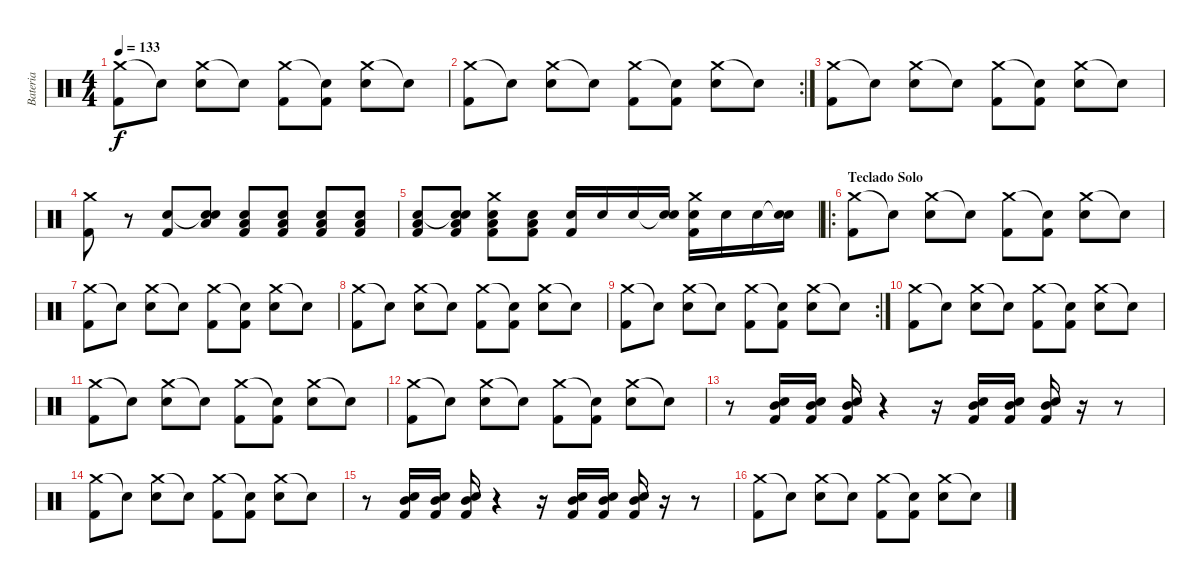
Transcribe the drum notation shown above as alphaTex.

\track ("Bateria" "Bateria") {instrument percussion}
\staff {score}
\articulation defaults
\ts (4 4)
\tempo 133
\clef neutral
\ks c
("Crash medium (hit)" "Kick (hit) 2").8{dy f} "Snare (hit)"{t}.8 ("Crash medium (hit)" "Electric Snare (hit)").8 "Snare (hit)"{t}.8 ("Crash medium (hit)" "Kick (hit) 2").8 ("Snare (hit)"{t} "Kick (hit) 2").8 ("Crash medium (hit)" "Electric Snare (hit)").8 "Snare (hit)"{t}.8 |
\rc 2
("Crash medium (hit)" "Kick (hit) 2").8 "Snare (hit)"{t}.8 ("Crash medium (hit)" "Electric Snare (hit)").8 "Snare (hit)"{t}.8 ("Crash medium (hit)" "Kick (hit) 2").8 ("Snare (hit)"{t} "Kick (hit) 2").8 ("Crash medium (hit)" "Electric Snare (hit)").8 "Snare (hit)"{t}.8 |
("Crash medium (hit)" "Kick (hit) 2").8 "Snare (hit)"{t}.8 ("Crash medium (hit)" "Electric Snare (hit)").8 "Snare (hit)"{t}.8 ("Crash medium (hit)" "Kick (hit) 2").8 ("Snare (hit)"{t} "Kick (hit) 2").8 ("Crash medium (hit)" "Electric Snare (hit)").8 "Snare (hit)"{t}.8 |
("Crash medium (hit)" "Kick (hit) 2").8 r.8 ("Electric Snare (hit)" "Kick (hit) 2").8 ("Snare (hit)"{t} "Electric Snare (hit)" "Low Floor Tom (hit)").8 ("Electric Snare (hit)" "Low Floor Tom (hit)" "Kick (hit) 2").8 ("Electric Snare (hit)" "Low Floor Tom (hit)" "Kick (hit) 2").8 ("Electric Snare (hit)" "Low Floor Tom (hit)" "Kick (hit) 2").8 ("Electric Snare (hit)" "Low Floor Tom (hit)" "Kick (hit) 2").8 |
("Electric Snare (hit)" "Low Floor Tom (hit)" "Kick (hit) 2").8 ("Snare (hit)"{t} "Electric Snare (hit)" "Low Floor Tom (hit)" "Kick (hit) 2").8 ("Crash medium (hit)" "Electric Snare (hit)" "Low Floor Tom (hit)" "Kick (hit) 2").8 ("Electric Snare (hit)" "Low Floor Tom (hit)" "Kick (hit) 2").8 ("Electric Snare (hit)" "Kick (hit) 2").16 "Electric Snare (hit)".16 "Electric Snare (hit)".16 ("Snare (hit)"{t} "Electric Snare (hit)").16 ("Crash medium (hit)" "Electric Snare (hit)" "Kick (hit) 2").16 "Electric Snare (hit)".16 "Electric Snare (hit)".16 ("Snare (hit)"{t} "Electric Snare (hit)").16 |
\ro
\section ("" "Teclado Solo")
("Crash medium (hit)" "Kick (hit) 2").8 "Snare (hit)"{t}.8 ("Crash medium (hit)" "Electric Snare (hit)").8 "Snare (hit)"{t}.8 ("Crash medium (hit)" "Kick (hit) 2").8 ("Snare (hit)"{t} "Kick (hit) 2").8 ("Crash medium (hit)" "Electric Snare (hit)").8 "Snare (hit)"{t}.8 |
("Crash medium (hit)" "Kick (hit) 2").8 "Snare (hit)"{t}.8 ("Crash medium (hit)" "Electric Snare (hit)").8 "Snare (hit)"{t}.8 ("Crash medium (hit)" "Kick (hit) 2").8 ("Snare (hit)"{t} "Kick (hit) 2").8 ("Crash medium (hit)" "Electric Snare (hit)").8 "Snare (hit)"{t}.8 |
("Crash medium (hit)" "Kick (hit) 2").8 "Snare (hit)"{t}.8 ("Crash medium (hit)" "Electric Snare (hit)").8 "Snare (hit)"{t}.8 ("Crash medium (hit)" "Kick (hit) 2").8 ("Snare (hit)"{t} "Kick (hit) 2").8 ("Crash medium (hit)" "Electric Snare (hit)").8 "Snare (hit)"{t}.8 |
\rc 2
("Crash medium (hit)" "Kick (hit) 2").8 "Snare (hit)"{t}.8 ("Crash medium (hit)" "Electric Snare (hit)").8 "Snare (hit)"{t}.8 ("Crash medium (hit)" "Kick (hit) 2").8 ("Snare (hit)"{t} "Kick (hit) 2").8 ("Crash medium (hit)" "Electric Snare (hit)").8 "Snare (hit)"{t}.8 |
("Crash medium (hit)" "Kick (hit) 2").8 "Snare (hit)"{t}.8 ("Crash medium (hit)" "Electric Snare (hit)").8 "Snare (hit)"{t}.8 ("Crash medium (hit)" "Kick (hit) 2").8 ("Snare (hit)"{t} "Kick (hit) 2").8 ("Crash medium (hit)" "Electric Snare (hit)").8 "Snare (hit)"{t}.8 |
("Crash medium (hit)" "Kick (hit) 2").8 "Snare (hit)"{t}.8 ("Crash medium (hit)" "Electric Snare (hit)").8 "Snare (hit)"{t}.8 ("Crash medium (hit)" "Kick (hit) 2").8 ("Snare (hit)"{t} "Kick (hit) 2").8 ("Crash medium (hit)" "Electric Snare (hit)").8 "Snare (hit)"{t}.8 |
("Crash medium (hit)" "Kick (hit) 2").8 "Snare (hit)"{t}.8 ("Crash medium (hit)" "Electric Snare (hit)").8 "Snare (hit)"{t}.8 ("Crash medium (hit)" "Kick (hit) 2").8 ("Snare (hit)"{t} "Kick (hit) 2").8 ("Crash medium (hit)" "Electric Snare (hit)").8 "Snare (hit)"{t}.8 |
r.8 ("Electric Snare (hit)" "Mid Tom (hit)" "Kick (hit) 2").16 ("Electric Snare (hit)" "Mid Tom (hit)" "Kick (hit) 2").16 ("Electric Snare (hit)" "Mid Tom (hit)" "Kick (hit) 2").16 r.4 r.16 ("Electric Snare (hit)" "Mid Tom (hit)" "Kick (hit) 2").16 ("Electric Snare (hit)" "Mid Tom (hit)" "Kick (hit) 2").16 ("Electric Snare (hit)" "Mid Tom (hit)" "Kick (hit) 2").16 r.16 r.8 |
("Crash medium (hit)" "Kick (hit) 2").8 "Snare (hit)"{t}.8 ("Crash medium (hit)" "Electric Snare (hit)").8 "Snare (hit)"{t}.8 ("Crash medium (hit)" "Kick (hit) 2").8 ("Snare (hit)"{t} "Kick (hit) 2").8 ("Crash medium (hit)" "Electric Snare (hit)").8 "Snare (hit)"{t}.8 |
r.8 ("Electric Snare (hit)" "Mid Tom (hit)" "Kick (hit) 2").16 ("Electric Snare (hit)" "Mid Tom (hit)" "Kick (hit) 2").16 ("Electric Snare (hit)" "Mid Tom (hit)" "Kick (hit) 2").16 r.4 r.16 ("Electric Snare (hit)" "Mid Tom (hit)" "Kick (hit) 2").16 ("Electric Snare (hit)" "Mid Tom (hit)" "Kick (hit) 2").16 ("Electric Snare (hit)" "Mid Tom (hit)" "Kick (hit) 2").16 r.16 r.8 |
("Crash medium (hit)" "Kick (hit) 2").8 "Snare (hit)"{t}.8 ("Crash medium (hit)" "Electric Snare (hit)").8 "Snare (hit)"{t}.8 ("Crash medium (hit)" "Kick (hit) 2").8 ("Snare (hit)"{t} "Kick (hit) 2").8 ("Crash medium (hit)" "Electric Snare (hit)").8 "Snare (hit)"{t}.8
